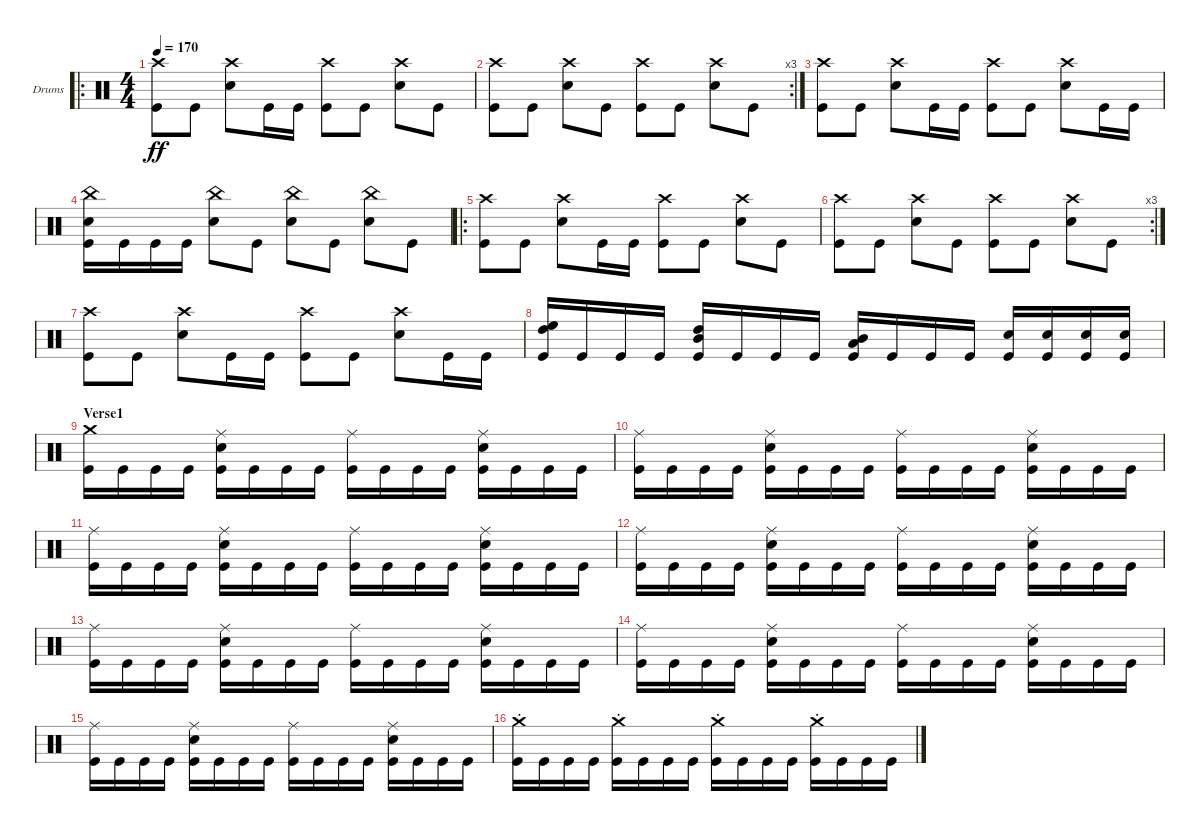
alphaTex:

\defaultSystemsLayout 4
\bracketExtendMode groupsimilarinstruments
\firstSystemTrackNameOrientation horizontal
\otherSystemsTrackNameOrientation horizontal
\track ("Inferno" "Drums") {instrument percussion}
\staff {score}
\articulation defaults
\ro
\ts (4 4)
\tempo 170
\clef neutral
\ks c
("Kick (hit)" "Crash high (hit)").8{dy ff} "Kick (hit)".8 ("Snare (hit) 2" "Crash high (hit)").8 "Kick (hit)".16 "Kick (hit)".16 ("Kick (hit)" "Crash high (hit)").8 "Kick (hit)".8 ("Snare (hit) 2" "Crash high (hit)").8 "Kick (hit)".8 |
\rc 3
("Kick (hit)" "Crash high (hit)").8 "Kick (hit)".8 ("Snare (hit) 2" "Crash high (hit)").8 "Kick (hit)".8 ("Kick (hit)" "Crash high (hit)").8 "Kick (hit)".8 ("Snare (hit) 2" "Crash high (hit)").8 "Kick (hit)".8 |
("Kick (hit)" "Crash high (hit)").8 "Kick (hit)".8 ("Snare (hit) 2" "Crash high (hit)").8 "Kick (hit)".16 "Kick (hit)".16 ("Kick (hit)" "Crash high (hit)").8 "Kick (hit)".8 ("Snare (hit) 2" "Crash high (hit)").8 "Kick (hit)".16 "Kick (hit)".16 |
("Snare (hit) 2" "Kick (hit)" "China (hit)").16 "Kick (hit)".16 "Kick (hit)".16 "Kick (hit)".16 ("Snare (hit) 2" "China (hit)").8 "Kick (hit)".8 ("Snare (hit) 2" "China (hit)").8 "Kick (hit)".8 ("Snare (hit) 2" "China (hit)").8 "Kick (hit)".8 |
\ro
("Kick (hit)" "Crash high (hit)").8 "Kick (hit)".8 ("Snare (hit) 2" "Crash high (hit)").8 "Kick (hit)".16 "Kick (hit)".16 ("Kick (hit)" "Crash high (hit)").8 "Kick (hit)".8 ("Snare (hit) 2" "Crash high (hit)").8 "Kick (hit)".8 |
\rc 3
("Kick (hit)" "Crash high (hit)").8 "Kick (hit)".8 ("Snare (hit) 2" "Crash high (hit)").8 "Kick (hit)".8 ("Kick (hit)" "Crash high (hit)").8 "Kick (hit)".8 ("Snare (hit) 2" "Crash high (hit)").8 "Kick (hit)".8 |
("Kick (hit)" "Crash high (hit)").8 "Kick (hit)".8 ("Snare (hit) 2" "Crash high (hit)").8 "Kick (hit)".16 "Kick (hit)".16 ("Kick (hit)" "Crash high (hit)").8 "Kick (hit)".8 ("Snare (hit) 2" "Crash high (hit)").8 "Kick (hit)".16 "Kick (hit)".16 |
("Kick (hit)" "High Tom (hit)" "High Floor Tom (hit)").16 "Kick (hit)".16 "Kick (hit)".16 "Kick (hit)".16 ("Kick (hit)" "High Tom (hit)" "Mid Tom (hit)").16 "Kick (hit)".16 "Kick (hit)".16 "Kick (hit)".16 ("Kick (hit)" "Mid Tom (hit)" "Low Tom (hit)").16 "Kick (hit)".16 "Kick (hit)".16 "Kick (hit)".16 ("Kick (hit)" "Snare (hit) 2").16 ("Kick (hit)" "Snare (hit) 2").16 ("Kick (hit)" "Snare (hit) 2").16 ("Kick (hit)" "Snare (hit) 2").16 |
\section ("" "Verse1")
("Kick (hit)" "Crash medium (hit)").16 "Kick (hit)".16 "Kick (hit)".16 "Kick (hit)".16 ("Kick (hit)" "Snare (hit) 2" "Ride (middle)").16 "Kick (hit)".16 "Kick (hit)".16 "Kick (hit)".16 ("Kick (hit)" "Ride (middle)").16 "Kick (hit)".16 "Kick (hit)".16 "Kick (hit)".16 ("Kick (hit)" "Ride (middle)" "Snare (hit) 2").16 "Kick (hit)".16 "Kick (hit)".16 "Kick (hit)".16 |
("Kick (hit)" "Ride (middle)").16 "Kick (hit)".16 "Kick (hit)".16 "Kick (hit)".16 ("Kick (hit)" "Snare (hit) 2" "Ride (middle)").16 "Kick (hit)".16 "Kick (hit)".16 "Kick (hit)".16 ("Kick (hit)" "Ride (middle)").16 "Kick (hit)".16 "Kick (hit)".16 "Kick (hit)".16 ("Kick (hit)" "Ride (middle)" "Snare (hit) 2").16 "Kick (hit)".16 "Kick (hit)".16 "Kick (hit)".16 |
("Kick (hit)" "Ride (middle)").16 "Kick (hit)".16 "Kick (hit)".16 "Kick (hit)".16 ("Kick (hit)" "Ride (middle)" "Snare (hit) 2").16 "Kick (hit)".16 "Kick (hit)".16 "Kick (hit)".16 ("Kick (hit)" "Ride (middle)").16 "Kick (hit)".16 "Kick (hit)".16 "Kick (hit)".16 ("Kick (hit)" "Ride (middle)" "Snare (hit) 2").16 "Kick (hit)".16 "Kick (hit)".16 "Kick (hit)".16 |
("Kick (hit)" "Ride (middle)").16 "Kick (hit)".16 "Kick (hit)".16 "Kick (hit)".16 ("Kick (hit)" "Snare (hit) 2" "Ride (middle)").16 "Kick (hit)".16 "Kick (hit)".16 "Kick (hit)".16 ("Kick (hit)" "Ride (middle)").16 "Kick (hit)".16 "Kick (hit)".16 "Kick (hit)".16 ("Kick (hit)" "Snare (hit) 2" "Ride (middle)").16 "Kick (hit)".16 "Kick (hit)".16 "Kick (hit)".16 |
("Kick (hit)" "Ride (middle)").16 "Kick (hit)".16 "Kick (hit)".16 "Kick (hit)".16 ("Kick (hit)" "Ride (middle)" "Snare (hit) 2").16 "Kick (hit)".16 "Kick (hit)".16 "Kick (hit)".16 ("Kick (hit)" "Ride (middle)").16 "Kick (hit)".16 "Kick (hit)".16 "Kick (hit)".16 ("Kick (hit)" "Ride (middle)" "Snare (hit) 2").16 "Kick (hit)".16 "Kick (hit)".16 "Kick (hit)".16 |
("Kick (hit)" "Ride (middle)").16 "Kick (hit)".16 "Kick (hit)".16 "Kick (hit)".16 ("Kick (hit)" "Ride (middle)" "Snare (hit) 2").16 "Kick (hit)".16 "Kick (hit)".16 "Kick (hit)".16 ("Kick (hit)" "Ride (middle)").16 "Kick (hit)".16 "Kick (hit)".16 "Kick (hit)".16 ("Kick (hit)" "Ride (middle)" "Snare (hit) 2").16 "Kick (hit)".16 "Kick (hit)".16 "Kick (hit)".16 |
("Kick (hit)" "Ride (middle)").16 "Kick (hit)".16 "Kick (hit)".16 "Kick (hit)".16 ("Kick (hit)" "Snare (hit) 2" "Ride (middle)").16 "Kick (hit)".16 "Kick (hit)".16 "Kick (hit)".16 ("Kick (hit)" "Ride (middle)").16 "Kick (hit)".16 "Kick (hit)".16 "Kick (hit)".16 ("Kick (hit)" "Ride (middle)" "Snare (hit) 2").16 "Kick (hit)".16 "Kick (hit)".16 "Kick (hit)".16 |
("Kick (hit)" "Crash medium (hit)"{st}).16 "Kick (hit)".16 "Kick (hit)".16 "Kick (hit)".16 ("Kick (hit)" "Crash medium (hit)"{st}).16 "Kick (hit)".16 "Kick (hit)".16 "Kick (hit)".16 ("Kick (hit)" "Crash medium (hit)"{st}).16 "Kick (hit)".16 "Kick (hit)".16 "Kick (hit)".16 ("Kick (hit)" "Crash medium (hit)"{st}).16 "Kick (hit)".16 "Kick (hit)".16 "Kick (hit)".16
